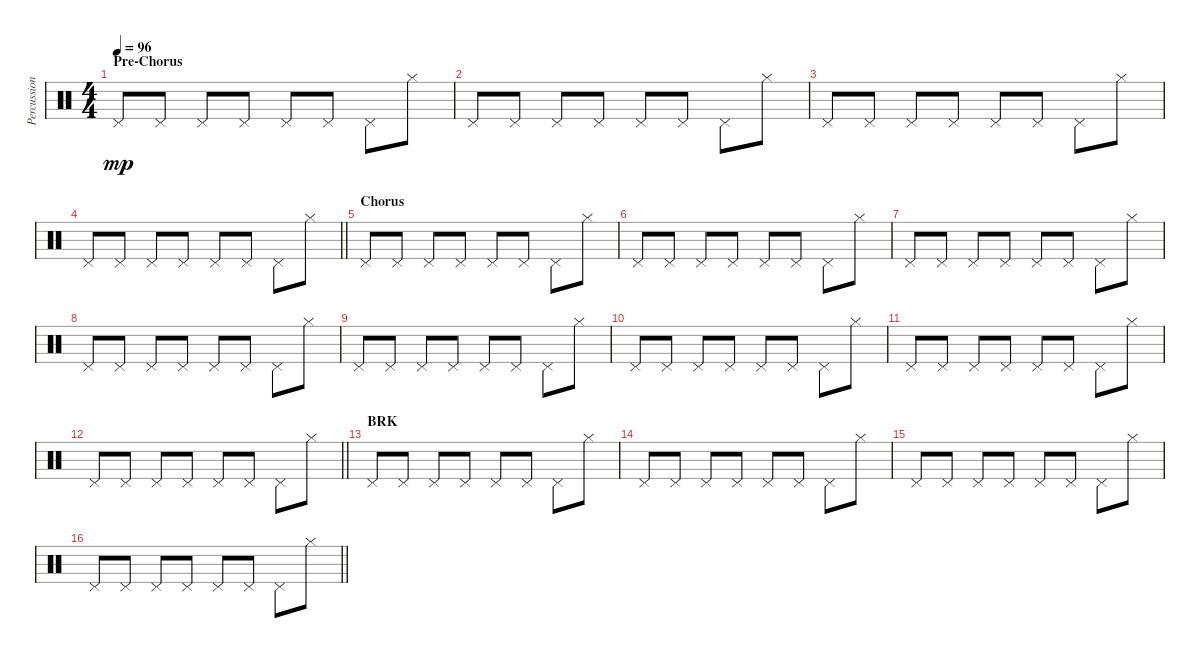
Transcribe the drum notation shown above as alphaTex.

\track ("Percussion" "Percussion") {instrument percussion}
\staff {score}
\articulation defaults
\ts (4 4)
\section ("" "Pre-Chorus")
\tempo 96
\clef neutral
\ks c "Pedal Hi-Hat (hit)".8{dy mp} "Pedal Hi-Hat (hit)".8 "Pedal Hi-Hat (hit)".8 "Pedal Hi-Hat (hit)".8 "Pedal Hi-Hat (hit)".8 "Pedal Hi-Hat (hit)".8 "Pedal Hi-Hat (hit)".8 "Hi-Hat (closed)".8
|
"Pedal Hi-Hat (hit)".8 "Pedal Hi-Hat (hit)".8 "Pedal Hi-Hat (hit)".8 "Pedal Hi-Hat (hit)".8 "Pedal Hi-Hat (hit)".8 "Pedal Hi-Hat (hit)".8 "Pedal Hi-Hat (hit)".8 "Hi-Hat (closed)".8 |
"Pedal Hi-Hat (hit)".8 "Pedal Hi-Hat (hit)".8 "Pedal Hi-Hat (hit)".8 "Pedal Hi-Hat (hit)".8 "Pedal Hi-Hat (hit)".8 "Pedal Hi-Hat (hit)".8 "Pedal Hi-Hat (hit)".8 "Hi-Hat (closed)".8 |
\barLineRight lightlight "Pedal Hi-Hat (hit)".8 "Pedal Hi-Hat (hit)".8 "Pedal Hi-Hat (hit)".8 "Pedal Hi-Hat (hit)".8 "Pedal Hi-Hat (hit)".8 "Pedal Hi-Hat (hit)".8 "Pedal Hi-Hat (hit)".8 "Hi-Hat (closed)".8
|
\section ("" "Chorus")
"Pedal Hi-Hat (hit)".8 "Pedal Hi-Hat (hit)".8 "Pedal Hi-Hat (hit)".8 "Pedal Hi-Hat (hit)".8 "Pedal Hi-Hat (hit)".8 "Pedal Hi-Hat (hit)".8 "Pedal Hi-Hat (hit)".8 "Hi-Hat (closed)".8 |
"Pedal Hi-Hat (hit)".8 "Pedal Hi-Hat (hit)".8 "Pedal Hi-Hat (hit)".8 "Pedal Hi-Hat (hit)".8 "Pedal Hi-Hat (hit)".8 "Pedal Hi-Hat (hit)".8 "Pedal Hi-Hat (hit)".8 "Hi-Hat (closed)".8 |
"Pedal Hi-Hat (hit)".8 "Pedal Hi-Hat (hit)".8 "Pedal Hi-Hat (hit)".8 "Pedal Hi-Hat (hit)".8 "Pedal Hi-Hat (hit)".8 "Pedal Hi-Hat (hit)".8 "Pedal Hi-Hat (hit)".8 "Hi-Hat (closed)".8 |
"Pedal Hi-Hat (hit)".8 "Pedal Hi-Hat (hit)".8 "Pedal Hi-Hat (hit)".8 "Pedal Hi-Hat (hit)".8 "Pedal Hi-Hat (hit)".8 "Pedal Hi-Hat (hit)".8 "Pedal Hi-Hat (hit)".8 "Hi-Hat (closed)".8 |
"Pedal Hi-Hat (hit)".8 "Pedal Hi-Hat (hit)".8 "Pedal Hi-Hat (hit)".8 "Pedal Hi-Hat (hit)".8 "Pedal Hi-Hat (hit)".8 "Pedal Hi-Hat (hit)".8 "Pedal Hi-Hat (hit)".8 "Hi-Hat (closed)".8 |
"Pedal Hi-Hat (hit)".8 "Pedal Hi-Hat (hit)".8 "Pedal Hi-Hat (hit)".8 "Pedal Hi-Hat (hit)".8 "Pedal Hi-Hat (hit)".8 "Pedal Hi-Hat (hit)".8 "Pedal Hi-Hat (hit)".8 "Hi-Hat (closed)".8 |
"Pedal Hi-Hat (hit)".8 "Pedal Hi-Hat (hit)".8 "Pedal Hi-Hat (hit)".8 "Pedal Hi-Hat (hit)".8 "Pedal Hi-Hat (hit)".8 "Pedal Hi-Hat (hit)".8 "Pedal Hi-Hat (hit)".8 "Hi-Hat (closed)".8 |
\barLineRight lightlight "Pedal Hi-Hat (hit)".8 "Pedal Hi-Hat (hit)".8 "Pedal Hi-Hat (hit)".8 "Pedal Hi-Hat (hit)".8 "Pedal Hi-Hat (hit)".8 "Pedal Hi-Hat (hit)".8 "Pedal Hi-Hat (hit)".8 "Hi-Hat (closed)".8
|
\section ("" "BRK")
"Pedal Hi-Hat (hit)".8 "Pedal Hi-Hat (hit)".8 "Pedal Hi-Hat (hit)".8 "Pedal Hi-Hat (hit)".8 "Pedal Hi-Hat (hit)".8 "Pedal Hi-Hat (hit)".8 "Pedal Hi-Hat (hit)".8 "Hi-Hat (closed)".8 |
"Pedal Hi-Hat (hit)".8 "Pedal Hi-Hat (hit)".8 "Pedal Hi-Hat (hit)".8 "Pedal Hi-Hat (hit)".8 "Pedal Hi-Hat (hit)".8 "Pedal Hi-Hat (hit)".8 "Pedal Hi-Hat (hit)".8 "Hi-Hat (closed)".8 |
"Pedal Hi-Hat (hit)".8 "Pedal Hi-Hat (hit)".8 "Pedal Hi-Hat (hit)".8 "Pedal Hi-Hat (hit)".8 "Pedal Hi-Hat (hit)".8 "Pedal Hi-Hat (hit)".8 "Pedal Hi-Hat (hit)".8 "Hi-Hat (closed)".8 |
\barLineRight lightlight "Pedal Hi-Hat (hit)".8 "Pedal Hi-Hat (hit)".8 "Pedal Hi-Hat (hit)".8 "Pedal Hi-Hat (hit)".8 "Pedal Hi-Hat (hit)".8 "Pedal Hi-Hat (hit)".8 "Pedal Hi-Hat (hit)".8 "Hi-Hat (closed)".8
